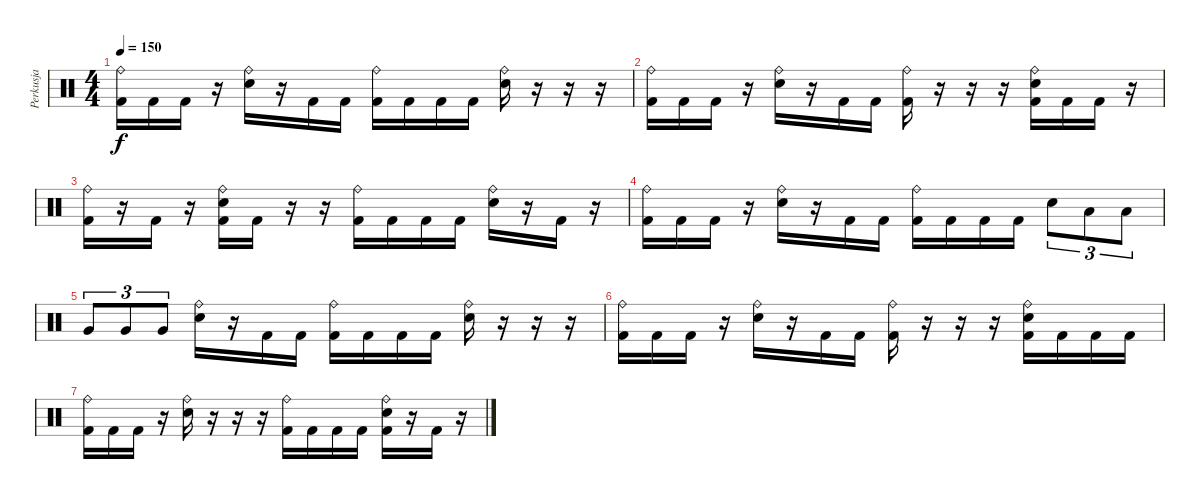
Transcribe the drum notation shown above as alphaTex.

\track ("Perkusja" "Perkusja") {instrument percussion}
\staff {score}
\articulation defaults
\ts (4 4)
\tempo 150
\clef neutral
\ks c
("Ride (bell)" "Kick (hit) 2").16{dy f} "Kick (hit) 2".16 "Kick (hit) 2".16 r.16 ("Ride (bell)" "Snare (hit) 2").16 r.16 "Kick (hit) 2".16 "Kick (hit) 2".16 ("Ride (bell)" "Kick (hit) 2").16 "Kick (hit) 2".16 "Kick (hit) 2".16 "Kick (hit) 2".16 ("Ride (bell)" "Snare (hit) 2").16 r.16 r.16 r.16 |
("Ride (bell)" "Kick (hit) 2").16 "Kick (hit) 2".16 "Kick (hit) 2".16 r.16 ("Ride (bell)" "Snare (hit) 2").16 r.16 "Kick (hit) 2".16 "Kick (hit) 2".16 ("Ride (bell)" "Kick (hit) 2").16 r.16 r.16 r.16 ("Ride (bell)" "Snare (hit) 2" "Kick (hit) 2").16 "Kick (hit) 2".16 "Kick (hit) 2".16 r.16 |
("Ride (bell)" "Kick (hit) 2").16 r.16 "Kick (hit) 2".16 r.16 ("Ride (bell)" "Snare (hit) 2" "Kick (hit) 2").16 "Kick (hit) 2".16 r.16 r.16 ("Ride (bell)" "Kick (hit) 2").16 "Kick (hit) 2".16 "Kick (hit) 2".16 "Kick (hit) 2".16 ("Ride (bell)" "Snare (hit) 2").16 r.16 "Kick (hit) 2".16 r.16 |
("Ride (bell)" "Kick (hit) 2").16 "Kick (hit) 2".16 "Kick (hit) 2".16 r.16 ("Ride (bell)" "Snare (hit) 2").16 r.16 "Kick (hit) 2".16 "Kick (hit) 2".16 ("Ride (bell)" "Kick (hit) 2").16 "Kick (hit) 2".16 "Kick (hit) 2".16 "Kick (hit) 2".16 "Snare (hit) 2".8{tu (3 2)} "Low Floor Tom (hit)".8{tu (3 2)} "Low Floor Tom (hit)".8{tu (3 2)} |
"Very Low Tom (hit)".8{tu (3 2)} "Very Low Tom (hit)".8{tu (3 2)} "Very Low Tom (hit)".8{tu (3 2)} ("Ride (bell)" "Snare (hit) 2").16 r.16 "Kick (hit) 2".16 "Kick (hit) 2".16 ("Ride (bell)" "Kick (hit) 2").16 "Kick (hit) 2".16 "Kick (hit) 2".16 "Kick (hit) 2".16 ("Ride (bell)" "Snare (hit) 2").16 r.16 r.16 r.16 |
("Ride (bell)" "Kick (hit) 2").16 "Kick (hit) 2".16 "Kick (hit) 2".16 r.16 ("Ride (bell)" "Snare (hit) 2").16 r.16 "Kick (hit) 2".16 "Kick (hit) 2".16 ("Ride (bell)" "Kick (hit) 2").16 r.16 r.16 r.16 ("Ride (bell)" "Snare (hit) 2" "Kick (hit) 2").16 "Kick (hit) 2".16 "Kick (hit) 2".16 "Kick (hit) 2".16 |
("Ride (bell)" "Kick (hit) 2").16 "Kick (hit) 2".16 "Kick (hit) 2".16 r.16 ("Ride (bell)" "Snare (hit) 2").16 r.16 r.16 r.16 ("Ride (bell)" "Kick (hit) 2").16 "Kick (hit) 2".16 "Kick (hit) 2".16 "Kick (hit) 2".16 ("Ride (bell)" "Snare (hit) 2" "Kick (hit) 2").16 r.16 "Kick (hit) 2".16 r.16
